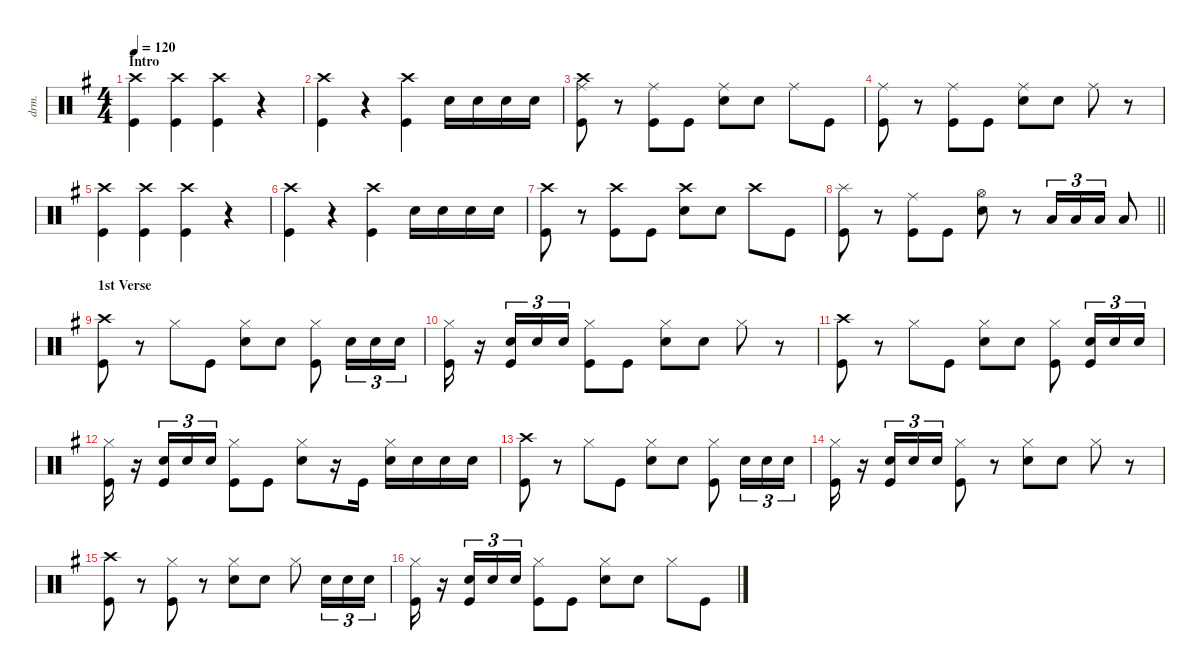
\defaultSystemsLayout 4
\hideDynamics
\bracketExtendMode nobrackets
\track ("Drums (Bill Ward)" "drm.") {instrument percussion}
\staff {score}
\articulation defaults
\ts (4 4)
\beaming (8 2 2 2 2)
\section ("" "Intro")
\tempo 120
\clef neutral
\ks g
("Crash high (hit)"{acc forcenatural} "Kick (hit)"{acc forcenatural}).4{dy f} ("Crash high (hit)"{acc forcenatural} "Kick (hit)"{acc forcenatural}).4 ("Crash high (hit)"{acc forcenatural} "Kick (hit)"{acc forcenatural}).4 r.4 |
("Crash high (hit)"{acc forcenatural} "Kick (hit)"{acc forcenatural}).4 r.4 ("Crash high (hit)"{acc forcenatural} "Kick (hit)"{acc forcenatural}).4 "Snare (hit) 2"{acc forcenatural}.16 "Snare (hit) 2"{acc forcenatural}.16 "Snare (hit) 2"{acc forcenatural}.16 "Snare (hit) 2"{acc forcenatural}.16 |
("Crash high (hit)"{acc forcenatural} "Ride (middle)"{acc forcenatural} "Kick (hit)"{acc forcenatural}).8 r.8 ("Ride (middle)"{acc forcenatural} "Kick (hit)"{acc forcenatural}).8 "Kick (hit)"{acc forcenatural}.8 ("Ride (middle)"{acc forcenatural} "Snare (hit) 2"{acc forcenatural}).8 "Snare (hit) 2"{acc forcenatural}.8 "Ride (middle)"{acc forcenatural}.8 "Kick (hit)"{acc forcenatural}.8 |
("Ride (middle)"{acc forcenatural} "Kick (hit)"{acc forcenatural}).8 r.8 ("Ride (middle)"{acc forcenatural} "Kick (hit)"{acc forcenatural}).8 "Kick (hit)"{acc forcenatural}.8 ("Ride (middle)"{acc forcenatural} "Snare (hit) 2"{acc forcenatural}).8 "Snare (hit) 2"{acc forcenatural}.8 "Ride (middle)"{acc forcenatural}.8 r.8 |
("Crash high (hit)"{acc forcenatural} "Kick (hit)"{acc forcenatural}).4 ("Crash high (hit)"{acc forcenatural} "Kick (hit)"{acc forcenatural}).4 ("Crash high (hit)"{acc forcenatural} "Kick (hit)"{acc forcenatural}).4 r.4 |
("Crash high (hit)"{acc forcenatural} "Kick (hit)"{acc forcenatural}).4 r.4 ("Crash high (hit)"{acc forcenatural} "Kick (hit)"{acc forcenatural}).4 "Snare (hit) 2"{acc forcenatural}.16 "Snare (hit) 2"{acc forcenatural}.16 "Snare (hit) 2"{acc forcenatural}.16 "Snare (hit) 2"{acc forcenatural}.16 |
("Crash high (hit)"{acc forcenatural} "Kick (hit)"{acc forcenatural}).8 r.8 ("Crash high (hit)"{acc forcenatural} "Kick (hit)"{acc forcenatural}).8{dy mf} "Kick (hit)"{acc forcenatural}.8{dy f} ("Crash high (hit)"{acc forcenatural} "Snare (hit) 2"{acc forcenatural}).8{dy mf} "Snare (hit) 2"{acc forcenatural}.8{dy f} "Crash high (hit)"{acc forcenatural}.8 "Kick (hit)"{acc forcenatural}.8 |
\barLineRight lightlight
("Splash (hit)"{acc forcenatural} "Kick (hit)"{acc forcenatural}).8 r.8 ("Ride (middle)"{acc forcenatural} "Kick (hit)"{acc forcenatural}).8{dy ff} "Kick (hit)"{acc forcenatural}.8{dy f} ("Hi-Hat (open)"{acc forcenatural} "Snare (hit) 2"{acc forcenatural}).8{dy fff} r.8 "Low Tom (hit)"{acc forcenatural}.16{tu (3 2) dy mf} "Low Tom (hit)"{acc forcenatural}.16{tu (3 2) dy f} "Low Tom (hit)"{acc forcenatural}.16{tu (3 2) dy ff} "Low Tom (hit)"{acc forcenatural}.8{dy f} |
\section ("" "1st Verse")
("Crash high (hit)"{acc forcenatural} "Kick (hit)"{acc forcenatural}).8 r.8 "Hi-Hat (closed)"{acc forcenatural}.8 "Kick (hit)"{acc forcenatural}.8 ("Hi-Hat (closed)"{acc forcenatural} "Snare (hit) 2"{acc forcenatural}).8 "Snare (hit) 2"{acc forcenatural}.8 ("Hi-Hat (closed)"{acc forcenatural} "Kick (hit)"{acc forcenatural}).8 "Snare (hit) 2"{acc forcenatural}.16{tu (3 2) dy p} "Snare (hit) 2"{acc forcenatural}.16{tu (3 2)} "Snare (hit) 2"{acc forcenatural}.16{tu (3 2)} |
("Hi-Hat (closed)"{acc forcenatural} "Kick (hit)"{acc forcenatural}).16{dy f} r.16 ("Snare (hit) 2"{acc forcenatural} "Kick (hit)"{acc forcenatural}).16{tu (3 2) dy p} "Snare (hit) 2"{acc forcenatural}.16{tu (3 2)} "Snare (hit) 2"{acc forcenatural}.16{tu (3 2)} ("Hi-Hat (closed)"{acc forcenatural} "Kick (hit)"{acc forcenatural}).8{dy f} "Kick (hit)"{acc forcenatural}.8 ("Hi-Hat (closed)"{acc forcenatural} "Snare (hit) 2"{acc forcenatural}).8 "Snare (hit) 2"{acc forcenatural}.8 "Hi-Hat (closed)"{acc forcenatural}.8 r.8 |
("Crash high (hit)"{acc forcenatural} "Kick (hit)"{acc forcenatural}).8 r.8 "Hi-Hat (closed)"{acc forcenatural}.8 "Kick (hit)"{acc forcenatural}.8 ("Hi-Hat (closed)"{acc forcenatural} "Snare (hit) 2"{acc forcenatural}).8 "Snare (hit) 2"{acc forcenatural}.8 ("Hi-Hat (closed)"{acc forcenatural} "Kick (hit)"{acc forcenatural}).8 ("Snare (hit) 2"{acc forcenatural} "Kick (hit)"{acc forcenatural}).16{tu (3 2) dy p} "Snare (hit) 2"{acc forcenatural}.16{tu (3 2)} "Snare (hit) 2"{acc forcenatural}.16{tu (3 2)} |
("Hi-Hat (closed)"{acc forcenatural} "Kick (hit)"{acc forcenatural}).16{dy f} r.16 ("Snare (hit) 2"{acc forcenatural} "Kick (hit)"{acc forcenatural}).16{tu (3 2) dy p} "Snare (hit) 2"{acc forcenatural}.16{tu (3 2)} "Snare (hit) 2"{acc forcenatural}.16{tu (3 2)} ("Hi-Hat (closed)"{acc forcenatural} "Kick (hit)"{acc forcenatural}).8{dy f} "Kick (hit)"{acc forcenatural}.8 ("Hi-Hat (closed)"{acc forcenatural} "Snare (hit) 2"{acc forcenatural}).8 r.16 "Kick (hit)"{acc forcenatural}.16 ("Hi-Hat (closed)"{acc forcenatural} "Snare (hit) 2"{acc forcenatural}).16 "Snare (hit) 2"{acc forcenatural}.16 "Snare (hit) 2"{acc forcenatural}.16 "Snare (hit) 2"{acc forcenatural}.16 |
("Crash high (hit)"{acc forcenatural} "Kick (hit)"{acc forcenatural}).8 r.8 "Hi-Hat (closed)"{acc forcenatural}.8 "Kick (hit)"{acc forcenatural}.8 ("Hi-Hat (closed)"{acc forcenatural} "Snare (hit) 2"{acc forcenatural}).8 "Snare (hit) 2"{acc forcenatural}.8 ("Hi-Hat (closed)"{acc forcenatural} "Kick (hit)"{acc forcenatural}).8 "Snare (hit) 2"{acc forcenatural}.16{tu (3 2) dy p} "Snare (hit) 2"{acc forcenatural}.16{tu (3 2)} "Snare (hit) 2"{acc forcenatural}.16{tu (3 2)} |
("Hi-Hat (closed)"{acc forcenatural} "Kick (hit)"{acc forcenatural}).16{dy f} r.16 ("Snare (hit) 2"{acc forcenatural} "Kick (hit)"{acc forcenatural}).16{tu (3 2) dy p} "Snare (hit) 2"{acc forcenatural}.16{tu (3 2)} "Snare (hit) 2"{acc forcenatural}.16{tu (3 2)} ("Hi-Hat (closed)"{acc forcenatural} "Kick (hit)"{acc forcenatural}).8{dy f} r.8 ("Hi-Hat (closed)"{acc forcenatural} "Snare (hit) 2"{acc forcenatural}).8 "Snare (hit) 2"{acc forcenatural}.8 "Hi-Hat (closed)"{acc forcenatural}.8 r.8 |
("Crash high (hit)"{acc forcenatural} "Kick (hit)"{acc forcenatural}).8 r.8 ("Hi-Hat (closed)"{acc forcenatural} "Kick (hit)"{acc forcenatural}).8 r.8 ("Hi-Hat (closed)"{acc forcenatural} "Snare (hit) 2"{acc forcenatural}).8 "Snare (hit) 2"{acc forcenatural}.8 "Hi-Hat (closed)"{acc forcenatural}.8 "Snare (hit) 2"{acc forcenatural}.16{tu (3 2) dy p} "Snare (hit) 2"{acc forcenatural}.16{tu (3 2)} "Snare (hit) 2"{acc forcenatural}.16{tu (3 2)} |
("Hi-Hat (closed)"{acc forcenatural} "Kick (hit)"{acc forcenatural}).16{dy f} r.16 ("Snare (hit) 2"{acc forcenatural} "Kick (hit)"{acc forcenatural}).16{tu (3 2) dy p} "Snare (hit) 2"{acc forcenatural}.16{tu (3 2)} "Snare (hit) 2"{acc forcenatural}.16{tu (3 2)} ("Hi-Hat (closed)"{acc forcenatural} "Kick (hit)"{acc forcenatural}).8{dy f} "Kick (hit)"{acc forcenatural}.8 ("Hi-Hat (closed)"{acc forcenatural} "Snare (hit) 2"{acc forcenatural}).8 "Snare (hit) 2"{acc forcenatural}.8 "Hi-Hat (closed)"{acc forcenatural}.8 "Kick (hit)"{acc forcenatural}.8
